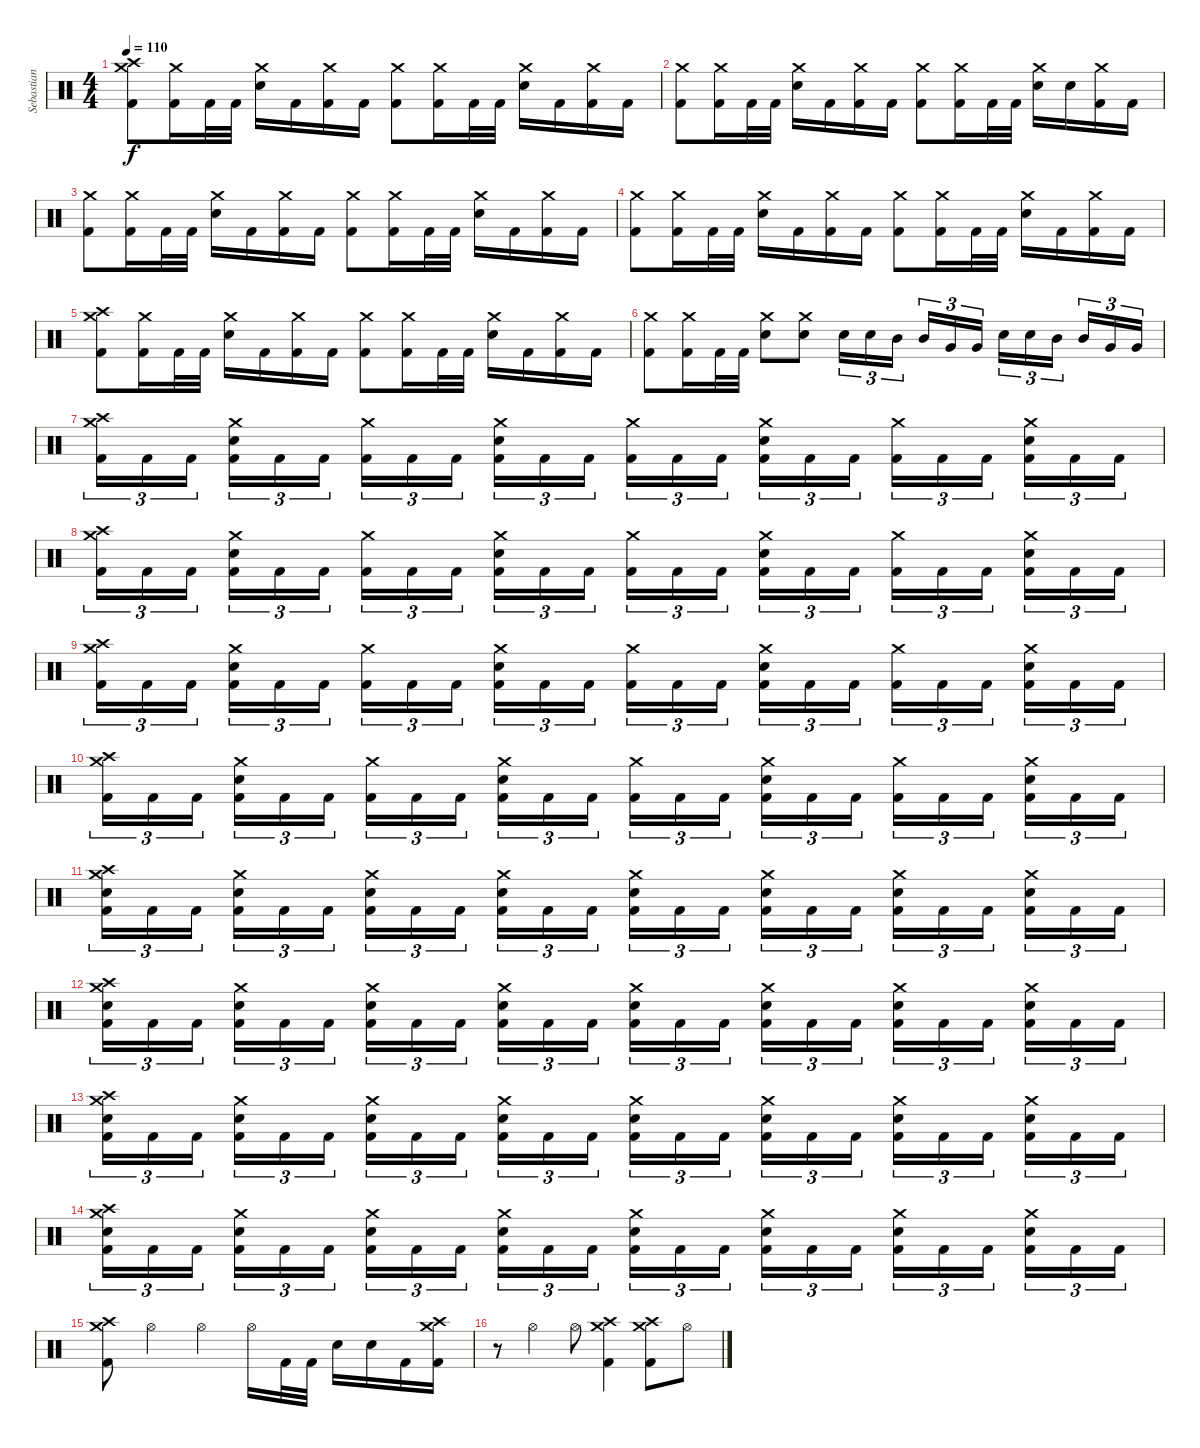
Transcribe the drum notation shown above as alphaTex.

\track ("Sebastian H." "Sebastian ") {instrument percussion}
\staff {score}
\articulation defaults
\ts (4 4)
\tempo 110
\clef neutral
\ks c
("Crash medium (hit)" "Crash high (hit)" "Kick (hit) 2").8{dy f} ("Crash medium (hit)" "Kick (hit) 2").16 "Kick (hit) 2".32 "Kick (hit) 2".32 ("Crash medium (hit)" "Electric Snare (hit)").16 "Kick (hit) 2".16 ("Crash medium (hit)" "Kick (hit) 2").16 "Kick (hit) 2".16 ("Crash medium (hit)" "Kick (hit) 2").8 ("Crash medium (hit)" "Kick (hit) 2").16 "Kick (hit) 2".32 "Kick (hit) 2".32 ("Crash medium (hit)" "Electric Snare (hit)").16 "Kick (hit) 2".16 ("Crash medium (hit)" "Kick (hit) 2").16 "Kick (hit) 2".16 |
("Crash medium (hit)" "Kick (hit) 2").8 ("Crash medium (hit)" "Kick (hit) 2").16 "Kick (hit) 2".32 "Kick (hit) 2".32 ("Crash medium (hit)" "Electric Snare (hit)").16 "Kick (hit) 2".16 ("Crash medium (hit)" "Kick (hit) 2").16 "Kick (hit) 2".16 ("Crash medium (hit)" "Kick (hit) 2").8 ("Crash medium (hit)" "Kick (hit) 2").16 "Kick (hit) 2".32 "Kick (hit) 2".32 ("Crash medium (hit)" "Electric Snare (hit)").16 "Electric Snare (hit)".16 ("Crash medium (hit)" "Kick (hit) 2").16 "Kick (hit) 2".16 |
("Crash medium (hit)" "Kick (hit) 2").8 ("Crash medium (hit)" "Kick (hit) 2").16 "Kick (hit) 2".32 "Kick (hit) 2".32 ("Crash medium (hit)" "Electric Snare (hit)").16 "Kick (hit) 2".16 ("Crash medium (hit)" "Kick (hit) 2").16 "Kick (hit) 2".16 ("Crash medium (hit)" "Kick (hit) 2").8 ("Crash medium (hit)" "Kick (hit) 2").16 "Kick (hit) 2".32 "Kick (hit) 2".32 ("Crash medium (hit)" "Electric Snare (hit)").16 "Kick (hit) 2".16 ("Crash medium (hit)" "Kick (hit) 2").16 "Kick (hit) 2".16 |
("Crash medium (hit)" "Kick (hit) 2").8 ("Crash medium (hit)" "Kick (hit) 2").16 "Kick (hit) 2".32 "Kick (hit) 2".32 ("Crash medium (hit)" "Electric Snare (hit)").16 "Kick (hit) 2".16 ("Crash medium (hit)" "Kick (hit) 2").16 "Kick (hit) 2".16 ("Crash medium (hit)" "Kick (hit) 2").8 ("Crash medium (hit)" "Kick (hit) 2").16 "Kick (hit) 2".32 "Kick (hit) 2".32 ("Crash medium (hit)" "Electric Snare (hit)").16 "Kick (hit) 2".16 ("Crash medium (hit)" "Kick (hit) 2").16 "Kick (hit) 2".16 |
("Crash medium (hit)" "Crash high (hit)" "Kick (hit) 2").8 ("Crash medium (hit)" "Kick (hit) 2").16 "Kick (hit) 2".32 "Kick (hit) 2".32 ("Crash medium (hit)" "Electric Snare (hit)").16 "Kick (hit) 2".16 ("Crash medium (hit)" "Kick (hit) 2").16 "Kick (hit) 2".16 ("Crash medium (hit)" "Kick (hit) 2").8 ("Crash medium (hit)" "Kick (hit) 2").16 "Kick (hit) 2".32 "Kick (hit) 2".32 ("Crash medium (hit)" "Electric Snare (hit)").16 "Kick (hit) 2".16 ("Crash medium (hit)" "Kick (hit) 2").16 "Kick (hit) 2".16 |
("Crash medium (hit)" "Kick (hit) 2").8 ("Crash medium (hit)" "Kick (hit) 2").16 "Kick (hit) 2".32 "Kick (hit) 2".32 ("Crash medium (hit)" "Electric Snare (hit)").8 ("Crash medium (hit)" "Electric Snare (hit)").8 "Electric Snare (hit)".16{tu (3 2)} "Electric Snare (hit)".16{tu (3 2)} "Mid Tom (hit)".16{tu (3 2)} "Mid Tom (hit)".16{tu (3 2)} "Very Low Tom (hit)".16{tu (3 2)} "Very Low Tom (hit)".16{tu (3 2)} "Electric Snare (hit)".16{tu (3 2)} "Electric Snare (hit)".16{tu (3 2)} "Mid Tom (hit)".16{tu (3 2)} "Mid Tom (hit)".16{tu (3 2)} "Very Low Tom (hit)".16{tu (3 2)} "Very Low Tom (hit)".16{tu (3 2)} |
("Kick (hit) 2" "Crash medium (hit)" "Crash high (hit)").16{tu (3 2)} "Kick (hit) 2".16{tu (3 2)} "Kick (hit) 2".16{tu (3 2)} ("Electric Snare (hit)" "Kick (hit) 2" "Crash medium (hit)").16{tu (3 2)} "Kick (hit) 2".16{tu (3 2)} "Kick (hit) 2".16{tu (3 2)} ("Kick (hit) 2" "Crash medium (hit)").16{tu (3 2)} "Kick (hit) 2".16{tu (3 2)} "Kick (hit) 2".16{tu (3 2)} ("Electric Snare (hit)" "Kick (hit) 2" "Crash medium (hit)").16{tu (3 2)} "Kick (hit) 2".16{tu (3 2)} "Kick (hit) 2".16{tu (3 2)} ("Kick (hit) 2" "Crash medium (hit)").16{tu (3 2)} "Kick (hit) 2".16{tu (3 2)} "Kick (hit) 2".16{tu (3 2)} ("Electric Snare (hit)" "Kick (hit) 2" "Crash medium (hit)").16{tu (3 2)} "Kick (hit) 2".16{tu (3 2)} "Kick (hit) 2".16{tu (3 2)} ("Kick (hit) 2" "Crash medium (hit)").16{tu (3 2)} "Kick (hit) 2".16{tu (3 2)} "Kick (hit) 2".16{tu (3 2)} ("Electric Snare (hit)" "Kick (hit) 2" "Crash medium (hit)").16{tu (3 2)} "Kick (hit) 2".16{tu (3 2)} "Kick (hit) 2".16{tu (3 2)} |
("Kick (hit) 2" "Crash medium (hit)" "Crash high (hit)").16{tu (3 2)} "Kick (hit) 2".16{tu (3 2)} "Kick (hit) 2".16{tu (3 2)} ("Electric Snare (hit)" "Kick (hit) 2" "Crash medium (hit)").16{tu (3 2)} "Kick (hit) 2".16{tu (3 2)} "Kick (hit) 2".16{tu (3 2)} ("Kick (hit) 2" "Crash medium (hit)").16{tu (3 2)} "Kick (hit) 2".16{tu (3 2)} "Kick (hit) 2".16{tu (3 2)} ("Electric Snare (hit)" "Kick (hit) 2" "Crash medium (hit)").16{tu (3 2)} "Kick (hit) 2".16{tu (3 2)} "Kick (hit) 2".16{tu (3 2)} ("Kick (hit) 2" "Crash medium (hit)").16{tu (3 2)} "Kick (hit) 2".16{tu (3 2)} "Kick (hit) 2".16{tu (3 2)} ("Electric Snare (hit)" "Kick (hit) 2" "Crash medium (hit)").16{tu (3 2)} "Kick (hit) 2".16{tu (3 2)} "Kick (hit) 2".16{tu (3 2)} ("Kick (hit) 2" "Crash medium (hit)").16{tu (3 2)} "Kick (hit) 2".16{tu (3 2)} "Kick (hit) 2".16{tu (3 2)} ("Electric Snare (hit)" "Kick (hit) 2" "Crash medium (hit)").16{tu (3 2)} "Kick (hit) 2".16{tu (3 2)} "Kick (hit) 2".16{tu (3 2)} |
("Kick (hit) 2" "Crash medium (hit)" "Crash high (hit)").16{tu (3 2)} "Kick (hit) 2".16{tu (3 2)} "Kick (hit) 2".16{tu (3 2)} ("Electric Snare (hit)" "Kick (hit) 2" "Crash medium (hit)").16{tu (3 2)} "Kick (hit) 2".16{tu (3 2)} "Kick (hit) 2".16{tu (3 2)} ("Kick (hit) 2" "Crash medium (hit)").16{tu (3 2)} "Kick (hit) 2".16{tu (3 2)} "Kick (hit) 2".16{tu (3 2)} ("Electric Snare (hit)" "Kick (hit) 2" "Crash medium (hit)").16{tu (3 2)} "Kick (hit) 2".16{tu (3 2)} "Kick (hit) 2".16{tu (3 2)} ("Kick (hit) 2" "Crash medium (hit)").16{tu (3 2)} "Kick (hit) 2".16{tu (3 2)} "Kick (hit) 2".16{tu (3 2)} ("Electric Snare (hit)" "Kick (hit) 2" "Crash medium (hit)").16{tu (3 2)} "Kick (hit) 2".16{tu (3 2)} "Kick (hit) 2".16{tu (3 2)} ("Kick (hit) 2" "Crash medium (hit)").16{tu (3 2)} "Kick (hit) 2".16{tu (3 2)} "Kick (hit) 2".16{tu (3 2)} ("Electric Snare (hit)" "Kick (hit) 2" "Crash medium (hit)").16{tu (3 2)} "Kick (hit) 2".16{tu (3 2)} "Kick (hit) 2".16{tu (3 2)} |
("Kick (hit) 2" "Crash medium (hit)" "Crash high (hit)").16{tu (3 2)} "Kick (hit) 2".16{tu (3 2)} "Kick (hit) 2".16{tu (3 2)} ("Electric Snare (hit)" "Kick (hit) 2" "Crash medium (hit)").16{tu (3 2)} "Kick (hit) 2".16{tu (3 2)} "Kick (hit) 2".16{tu (3 2)} ("Kick (hit) 2" "Crash medium (hit)").16{tu (3 2)} "Kick (hit) 2".16{tu (3 2)} "Kick (hit) 2".16{tu (3 2)} ("Electric Snare (hit)" "Kick (hit) 2" "Crash medium (hit)").16{tu (3 2)} "Kick (hit) 2".16{tu (3 2)} "Kick (hit) 2".16{tu (3 2)} ("Kick (hit) 2" "Crash medium (hit)").16{tu (3 2)} "Kick (hit) 2".16{tu (3 2)} "Kick (hit) 2".16{tu (3 2)} ("Electric Snare (hit)" "Kick (hit) 2" "Crash medium (hit)").16{tu (3 2)} "Kick (hit) 2".16{tu (3 2)} "Kick (hit) 2".16{tu (3 2)} ("Kick (hit) 2" "Crash medium (hit)").16{tu (3 2)} "Kick (hit) 2".16{tu (3 2)} "Kick (hit) 2".16{tu (3 2)} ("Electric Snare (hit)" "Kick (hit) 2" "Crash medium (hit)").16{tu (3 2)} "Kick (hit) 2".16{tu (3 2)} "Kick (hit) 2".16{tu (3 2)} |
("Kick (hit) 2" "Crash medium (hit)" "Crash high (hit)" "Electric Snare (hit)").16{tu (3 2)} "Kick (hit) 2".16{tu (3 2)} "Kick (hit) 2".16{tu (3 2)} ("Electric Snare (hit)" "Kick (hit) 2" "Crash medium (hit)").16{tu (3 2)} "Kick (hit) 2".16{tu (3 2)} "Kick (hit) 2".16{tu (3 2)} ("Kick (hit) 2" "Crash medium (hit)" "Electric Snare (hit)").16{tu (3 2)} "Kick (hit) 2".16{tu (3 2)} "Kick (hit) 2".16{tu (3 2)} ("Electric Snare (hit)" "Kick (hit) 2" "Crash medium (hit)").16{tu (3 2)} "Kick (hit) 2".16{tu (3 2)} "Kick (hit) 2".16{tu (3 2)} ("Kick (hit) 2" "Crash medium (hit)" "Electric Snare (hit)").16{tu (3 2)} "Kick (hit) 2".16{tu (3 2)} "Kick (hit) 2".16{tu (3 2)} ("Electric Snare (hit)" "Kick (hit) 2" "Crash medium (hit)").16{tu (3 2)} "Kick (hit) 2".16{tu (3 2)} "Kick (hit) 2".16{tu (3 2)} ("Kick (hit) 2" "Crash medium (hit)" "Electric Snare (hit)").16{tu (3 2)} "Kick (hit) 2".16{tu (3 2)} "Kick (hit) 2".16{tu (3 2)} ("Electric Snare (hit)" "Kick (hit) 2" "Crash medium (hit)").16{tu (3 2)} "Kick (hit) 2".16{tu (3 2)} "Kick (hit) 2".16{tu (3 2)} |
("Kick (hit) 2" "Crash medium (hit)" "Crash high (hit)" "Electric Snare (hit)").16{tu (3 2)} "Kick (hit) 2".16{tu (3 2)} "Kick (hit) 2".16{tu (3 2)} ("Electric Snare (hit)" "Kick (hit) 2" "Crash medium (hit)").16{tu (3 2)} "Kick (hit) 2".16{tu (3 2)} "Kick (hit) 2".16{tu (3 2)} ("Kick (hit) 2" "Crash medium (hit)" "Electric Snare (hit)").16{tu (3 2)} "Kick (hit) 2".16{tu (3 2)} "Kick (hit) 2".16{tu (3 2)} ("Electric Snare (hit)" "Kick (hit) 2" "Crash medium (hit)").16{tu (3 2)} "Kick (hit) 2".16{tu (3 2)} "Kick (hit) 2".16{tu (3 2)} ("Kick (hit) 2" "Crash medium (hit)" "Electric Snare (hit)").16{tu (3 2)} "Kick (hit) 2".16{tu (3 2)} "Kick (hit) 2".16{tu (3 2)} ("Electric Snare (hit)" "Kick (hit) 2" "Crash medium (hit)").16{tu (3 2)} "Kick (hit) 2".16{tu (3 2)} "Kick (hit) 2".16{tu (3 2)} ("Kick (hit) 2" "Crash medium (hit)" "Electric Snare (hit)").16{tu (3 2)} "Kick (hit) 2".16{tu (3 2)} "Kick (hit) 2".16{tu (3 2)} ("Electric Snare (hit)" "Kick (hit) 2" "Crash medium (hit)").16{tu (3 2)} "Kick (hit) 2".16{tu (3 2)} "Kick (hit) 2".16{tu (3 2)} |
("Kick (hit) 2" "Crash medium (hit)" "Crash high (hit)" "Electric Snare (hit)").16{tu (3 2)} "Kick (hit) 2".16{tu (3 2)} "Kick (hit) 2".16{tu (3 2)} ("Electric Snare (hit)" "Kick (hit) 2" "Crash medium (hit)").16{tu (3 2)} "Kick (hit) 2".16{tu (3 2)} "Kick (hit) 2".16{tu (3 2)} ("Kick (hit) 2" "Crash medium (hit)" "Electric Snare (hit)").16{tu (3 2)} "Kick (hit) 2".16{tu (3 2)} "Kick (hit) 2".16{tu (3 2)} ("Electric Snare (hit)" "Kick (hit) 2" "Crash medium (hit)").16{tu (3 2)} "Kick (hit) 2".16{tu (3 2)} "Kick (hit) 2".16{tu (3 2)} ("Kick (hit) 2" "Crash medium (hit)" "Electric Snare (hit)").16{tu (3 2)} "Kick (hit) 2".16{tu (3 2)} "Kick (hit) 2".16{tu (3 2)} ("Electric Snare (hit)" "Kick (hit) 2" "Crash medium (hit)").16{tu (3 2)} "Kick (hit) 2".16{tu (3 2)} "Kick (hit) 2".16{tu (3 2)} ("Kick (hit) 2" "Crash medium (hit)" "Electric Snare (hit)").16{tu (3 2)} "Kick (hit) 2".16{tu (3 2)} "Kick (hit) 2".16{tu (3 2)} ("Electric Snare (hit)" "Kick (hit) 2" "Crash medium (hit)").16{tu (3 2)} "Kick (hit) 2".16{tu (3 2)} "Kick (hit) 2".16{tu (3 2)} |
("Kick (hit) 2" "Crash medium (hit)" "Crash high (hit)" "Electric Snare (hit)").16{tu (3 2)} "Kick (hit) 2".16{tu (3 2)} "Kick (hit) 2".16{tu (3 2)} ("Electric Snare (hit)" "Kick (hit) 2" "Crash medium (hit)").16{tu (3 2)} "Kick (hit) 2".16{tu (3 2)} "Kick (hit) 2".16{tu (3 2)} ("Kick (hit) 2" "Crash medium (hit)" "Electric Snare (hit)").16{tu (3 2)} "Kick (hit) 2".16{tu (3 2)} "Kick (hit) 2".16{tu (3 2)} ("Electric Snare (hit)" "Kick (hit) 2" "Crash medium (hit)").16{tu (3 2)} "Kick (hit) 2".16{tu (3 2)} "Kick (hit) 2".16{tu (3 2)} ("Kick (hit) 2" "Crash medium (hit)" "Electric Snare (hit)").16{tu (3 2)} "Kick (hit) 2".16{tu (3 2)} "Kick (hit) 2".16{tu (3 2)} ("Electric Snare (hit)" "Kick (hit) 2" "Crash medium (hit)").16{tu (3 2)} "Kick (hit) 2".16{tu (3 2)} "Kick (hit) 2".16{tu (3 2)} ("Kick (hit) 2" "Crash medium (hit)" "Electric Snare (hit)").16{tu (3 2)} "Kick (hit) 2".16{tu (3 2)} "Kick (hit) 2".16{tu (3 2)} ("Electric Snare (hit)" "Kick (hit) 2" "Crash medium (hit)").16{tu (3 2)} "Kick (hit) 2".16{tu (3 2)} "Kick (hit) 2".16{tu (3 2)} |
("Kick (hit) 2" "Crash medium (hit)" "Crash high (hit)").8 "Hi-Hat (open)".4 "Hi-Hat (open)".4 "Hi-Hat (open)".16 "Kick (hit) 2".32 "Kick (hit) 2".32 "Electric Snare (hit)".16 "Electric Snare (hit)".16 "Kick (hit) 2".16 ("Kick (hit) 2" "Crash medium (hit)" "Crash high (hit)").16 |
r.8 "Hi-Hat (open)".4 "Hi-Hat (open)".8 ("Kick (hit) 2" "Crash medium (hit)" "Crash high (hit)").4 ("Kick (hit) 2" "Crash medium (hit)" "Crash high (hit)").8 "Hi-Hat (open)".8
